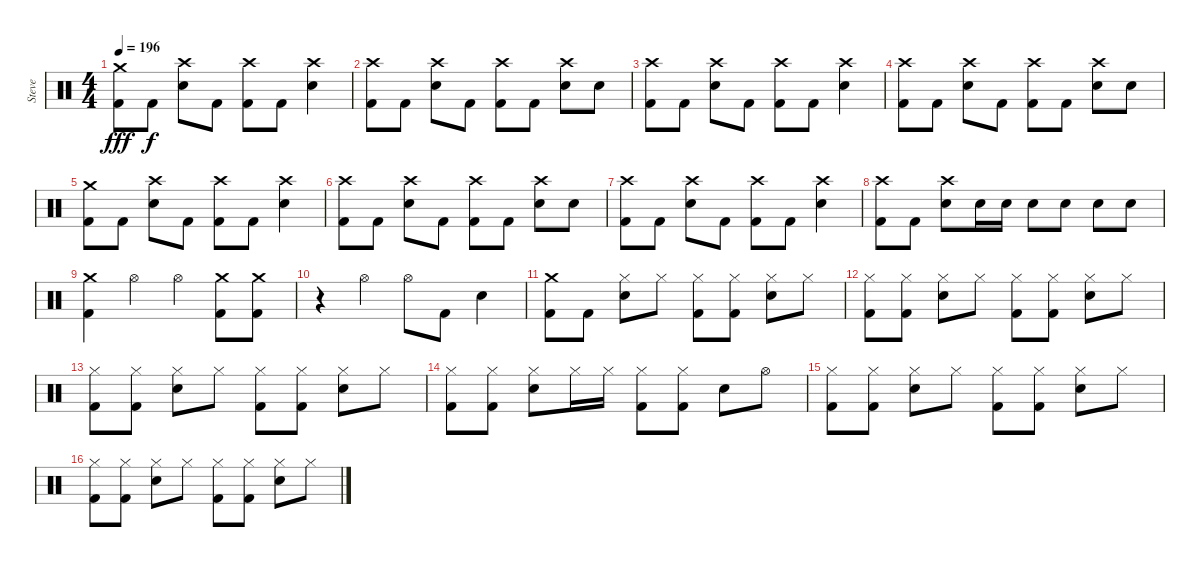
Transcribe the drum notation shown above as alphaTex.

\track ("Steve" "Steve") {instrument percussion}
\staff {score}
\articulation defaults
\ts (4 4)
\tempo 196
\clef neutral
\ks c
("Crash medium (hit)" "Kick (hit) 2").8{dy fff} "Kick (hit) 2".8{dy f} ("Crash high (hit)" "Electric Snare (hit)").8 "Kick (hit) 2".8 ("Crash high (hit)" "Kick (hit) 2").8 "Kick (hit) 2".8 ("Crash high (hit)" "Electric Snare (hit)").4 |
("Crash high (hit)" "Kick (hit) 2").8 "Kick (hit) 2".8 ("Crash high (hit)" "Electric Snare (hit)").8 "Kick (hit) 2".8 ("Crash high (hit)" "Kick (hit) 2").8 "Kick (hit) 2".8 ("Crash high (hit)" "Electric Snare (hit)").8 "Electric Snare (hit)".8 |
("Crash high (hit)" "Kick (hit) 2").8 "Kick (hit) 2".8 ("Crash high (hit)" "Electric Snare (hit)").8 "Kick (hit) 2".8 ("Crash high (hit)" "Kick (hit) 2").8 "Kick (hit) 2".8 ("Crash high (hit)" "Electric Snare (hit)").4 |
("Crash high (hit)" "Kick (hit) 2").8 "Kick (hit) 2".8 ("Crash high (hit)" "Electric Snare (hit)").8 "Kick (hit) 2".8 ("Crash high (hit)" "Kick (hit) 2").8 "Kick (hit) 2".8 ("Crash high (hit)" "Electric Snare (hit)").8 "Electric Snare (hit)".8 |
("Crash medium (hit)" "Kick (hit) 2").8 "Kick (hit) 2".8 ("Crash high (hit)" "Electric Snare (hit)").8 "Kick (hit) 2".8 ("Crash high (hit)" "Kick (hit) 2").8 "Kick (hit) 2".8 ("Crash high (hit)" "Electric Snare (hit)").4 |
("Crash high (hit)" "Kick (hit) 2").8 "Kick (hit) 2".8 ("Crash high (hit)" "Electric Snare (hit)").8 "Kick (hit) 2".8 ("Crash high (hit)" "Kick (hit) 2").8 "Kick (hit) 2".8 ("Crash high (hit)" "Electric Snare (hit)").8 "Electric Snare (hit)".8 |
("Crash high (hit)" "Kick (hit) 2").8 "Kick (hit) 2".8 ("Crash high (hit)" "Electric Snare (hit)").8 "Kick (hit) 2".8 ("Crash high (hit)" "Kick (hit) 2").8 "Kick (hit) 2".8 ("Crash high (hit)" "Electric Snare (hit)").4 |
("Crash high (hit)" "Kick (hit) 2").8 "Kick (hit) 2".8 ("Crash high (hit)" "Electric Snare (hit)").8 "Electric Snare (hit)".16 "Electric Snare (hit)".16 "Electric Snare (hit)".8 "Electric Snare (hit)".8 "Electric Snare (hit)".8 "Electric Snare (hit)".8 |
("Crash medium (hit)" "Kick (hit) 2").4 "Hi-Hat (open)".4 "Hi-Hat (open)".4 ("Crash medium (hit)" "Kick (hit) 2").8 ("Crash medium (hit)" "Kick (hit) 2").8 |
r.4 "Hi-Hat (open)".4 "Hi-Hat (open)".8 "Kick (hit) 2".8 "Electric Snare (hit)".4 |
("Crash medium (hit)" "Kick (hit) 2").8 "Kick (hit) 2".8 ("Hi-Hat (closed)" "Electric Snare (hit)").8 "Hi-Hat (closed)".8 ("Hi-Hat (closed)" "Kick (hit) 2").8 ("Hi-Hat (closed)" "Kick (hit) 2").8 ("Hi-Hat (closed)" "Electric Snare (hit)").8 "Hi-Hat (closed)".8 |
("Hi-Hat (closed)" "Kick (hit) 2").8 ("Hi-Hat (closed)" "Kick (hit) 2").8 ("Hi-Hat (closed)" "Electric Snare (hit)").8 "Hi-Hat (closed)".8 ("Hi-Hat (closed)" "Kick (hit) 2").8 ("Hi-Hat (closed)" "Kick (hit) 2").8 ("Hi-Hat (closed)" "Electric Snare (hit)").8 "Hi-Hat (closed)".8 |
("Hi-Hat (closed)" "Kick (hit) 2").8 ("Hi-Hat (closed)" "Kick (hit) 2").8 ("Hi-Hat (closed)" "Electric Snare (hit)").8 "Hi-Hat (closed)".8 ("Hi-Hat (closed)" "Kick (hit) 2").8 ("Hi-Hat (closed)" "Kick (hit) 2").8 ("Hi-Hat (closed)" "Electric Snare (hit)").8 "Hi-Hat (closed)".8 |
("Hi-Hat (closed)" "Kick (hit) 2").8 ("Hi-Hat (closed)" "Kick (hit) 2").8 ("Hi-Hat (closed)" "Electric Snare (hit)").8 "Hi-Hat (closed)".16 "Hi-Hat (closed)".16 ("Hi-Hat (closed)" "Kick (hit) 2").8 ("Hi-Hat (closed)" "Kick (hit) 2").8 "Electric Snare (hit)".8 "Hi-Hat (open)".8 |
("Hi-Hat (closed)" "Kick (hit) 2").8 ("Hi-Hat (closed)" "Kick (hit) 2").8 ("Hi-Hat (closed)" "Electric Snare (hit)").8 "Hi-Hat (closed)".8 ("Hi-Hat (closed)" "Kick (hit) 2").8 ("Hi-Hat (closed)" "Kick (hit) 2").8 ("Hi-Hat (closed)" "Electric Snare (hit)").8 "Hi-Hat (closed)".8 |
("Hi-Hat (closed)" "Kick (hit) 2").8 ("Hi-Hat (closed)" "Kick (hit) 2").8 ("Hi-Hat (closed)" "Electric Snare (hit)").8 "Hi-Hat (closed)".8 ("Hi-Hat (closed)" "Kick (hit) 2").8 ("Hi-Hat (closed)" "Kick (hit) 2").8 ("Hi-Hat (closed)" "Electric Snare (hit)").8 "Hi-Hat (closed)".8
